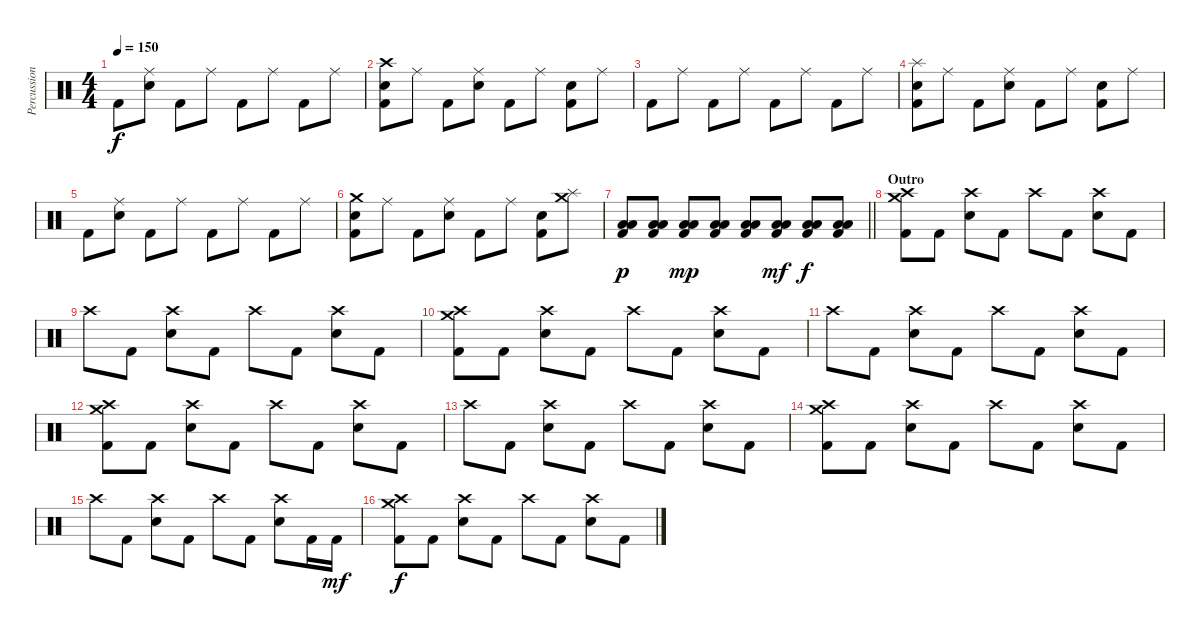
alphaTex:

\track ("Percussion" "Percussion") {instrument percussion}
\staff {score}
\articulation defaults
\ts (4 4)
\tempo 150
\clef neutral
\ks c "Kick (hit) 2".8{dy f}
("Ride (middle)" "Snare (hit) 2").8 "Kick (hit) 2".8 "Ride (middle)".8 "Kick (hit) 2".8 "Ride (middle)".8 "Kick (hit) 2".8 "Ride (middle)".8 |
("Crash high (hit)" "Snare (hit) 2" "Kick (hit) 2").8 "Ride (middle)".8 "Kick (hit) 2".8 ("Ride (middle)" "Snare (hit) 2").8 "Kick (hit) 2".8 "Ride (middle)".8 ("Snare (hit) 2" "Kick (hit) 2").8 "Ride (middle)".8 |
"Kick (hit) 2".8 "Ride (middle)".8 "Kick (hit) 2".8 "Ride (middle)".8 "Kick (hit) 2".8 "Ride (middle)".8 "Kick (hit) 2".8 "Ride (middle)".8 |
("Splash (hit)" "Snare (hit) 2" "Kick (hit) 2").8 "Ride (middle)".8 "Kick (hit) 2".8 ("Ride (middle)" "Snare (hit) 2").8 "Kick (hit) 2".8 "Ride (middle)".8 ("Snare (hit) 2" "Kick (hit) 2").8 "Ride (middle)".8 |
"Kick (hit) 2".8 ("Ride (middle)" "Snare (hit) 2").8 "Kick (hit) 2".8 "Ride (middle)".8 "Kick (hit) 2".8 "Ride (middle)".8 "Kick (hit) 2".8 "Ride (middle)".8 |
("Crash medium (hit)" "Snare (hit) 2" "Kick (hit) 2").8 "Ride (middle)".8 "Kick (hit) 2".8 ("Ride (middle)" "Snare (hit) 2").8 "Kick (hit) 2".8 "Ride (middle)".8 ("Snare (hit) 2" "Kick (hit) 2").8 ("Splash (hit)" "Crash medium (hit)").8 |
\barLineRight lightlight
("Low Tom (hit)" "Low Floor Tom (hit)" "Kick (hit) 2").8{dy p} ("Low Tom (hit)" "Low Floor Tom (hit)" "Kick (hit) 2").8 ("Low Tom (hit)" "Low Floor Tom (hit)" "Kick (hit) 2").8{dy mp} ("Low Tom (hit)" "Low Floor Tom (hit)" "Kick (hit) 2").8 ("Low Tom (hit)" "Low Floor Tom (hit)" "Kick (hit) 2").8 ("Low Tom (hit)" "Low Floor Tom (hit)" "Kick (hit) 2").8{dy mf} ("Low Tom (hit)" "Low Floor Tom (hit)" "Kick (hit) 2").8{dy f} ("Low Tom (hit)" "Low Floor Tom (hit)" "Kick (hit) 2").8 |
\section ("" "Outro")
("Crash high (hit)" "Crash medium (hit)" "Kick (hit) 2").8 "Kick (hit) 2".8 ("Crash high (hit)" "Snare (hit) 2").8 "Kick (hit) 2".8 "Crash high (hit)".8 "Kick (hit) 2".8 ("Crash high (hit)" "Snare (hit) 2").8 "Kick (hit) 2".8 |
"Crash high (hit)".8 "Kick (hit) 2".8 ("Crash high (hit)" "Snare (hit) 2").8 "Kick (hit) 2".8 "Crash high (hit)".8 "Kick (hit) 2".8 ("Crash high (hit)" "Snare (hit) 2").8 "Kick (hit) 2".8 |
("Crash high (hit)" "Crash medium (hit)" "Kick (hit) 2").8 "Kick (hit) 2".8 ("Crash high (hit)" "Snare (hit) 2").8 "Kick (hit) 2".8 "Crash high (hit)".8 "Kick (hit) 2".8 ("Crash high (hit)" "Snare (hit) 2").8 "Kick (hit) 2".8 |
"Crash high (hit)".8 "Kick (hit) 2".8 ("Crash high (hit)" "Snare (hit) 2").8 "Kick (hit) 2".8 "Crash high (hit)".8 "Kick (hit) 2".8 ("Crash high (hit)" "Snare (hit) 2").8 "Kick (hit) 2".8 |
("Crash high (hit)" "Crash medium (hit)" "Kick (hit) 2").8 "Kick (hit) 2".8 ("Crash high (hit)" "Snare (hit) 2").8 "Kick (hit) 2".8 "Crash high (hit)".8 "Kick (hit) 2".8 ("Crash high (hit)" "Snare (hit) 2").8 "Kick (hit) 2".8 |
"Crash high (hit)".8 "Kick (hit) 2".8 ("Crash high (hit)" "Snare (hit) 2").8 "Kick (hit) 2".8 "Crash high (hit)".8 "Kick (hit) 2".8 ("Crash high (hit)" "Snare (hit) 2").8 "Kick (hit) 2".8 |
("Crash high (hit)" "Crash medium (hit)" "Kick (hit) 2").8 "Kick (hit) 2".8 ("Crash high (hit)" "Snare (hit) 2").8 "Kick (hit) 2".8 "Crash high (hit)".8 "Kick (hit) 2".8 ("Crash high (hit)" "Snare (hit) 2").8 "Kick (hit) 2".8 |
"Crash high (hit)".8 "Kick (hit) 2".8 ("Crash high (hit)" "Snare (hit) 2").8 "Kick (hit) 2".8 "Crash high (hit)".8 "Kick (hit) 2".8 ("Crash high (hit)" "Snare (hit) 2").8 "Kick (hit) 2".16 "Kick (hit) 2".16{dy mf} |
("Crash high (hit)" "Crash medium (hit)" "Kick (hit) 2").8{dy f} "Kick (hit) 2".8 ("Crash high (hit)" "Snare (hit) 2").8 "Kick (hit) 2".8 "Crash high (hit)".8 "Kick (hit) 2".8 ("Crash high (hit)" "Snare (hit) 2").8 "Kick (hit) 2".8
